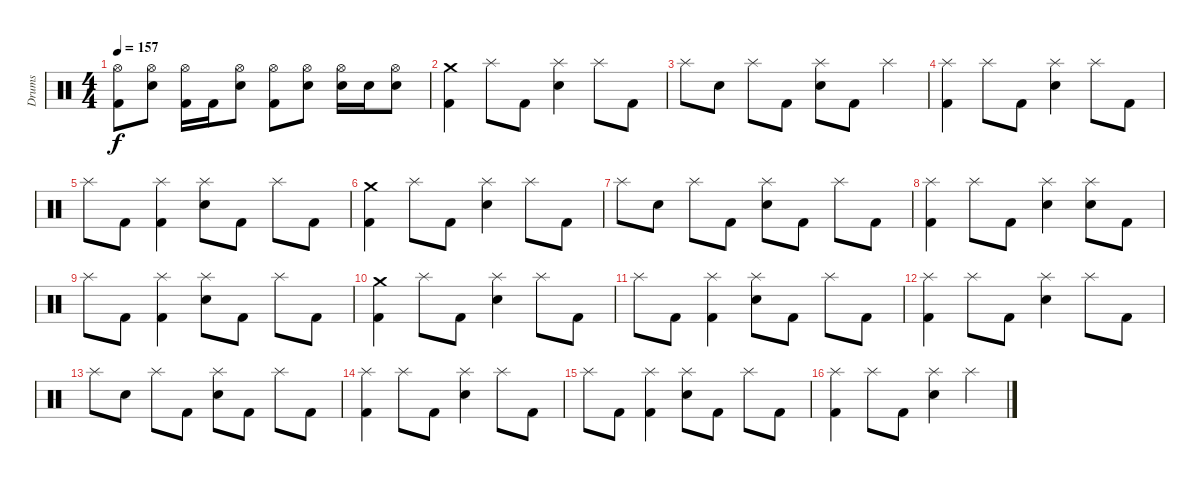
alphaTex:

\track ("Drums" "Drums") {instrument percussion}
\staff {score}
\articulation defaults
\ts (4 4)
\tempo 157
\clef neutral
\ks c
("Kick (hit) 2" "Hi-Hat (open)").8{dy f} ("Electric Snare (hit)" "Hi-Hat (open)").8 ("Kick (hit) 2" "Hi-Hat (open)").16 "Kick (hit) 2".16 ("Electric Snare (hit)" "Hi-Hat (open)").8 ("Kick (hit) 2" "Hi-Hat (open)").8 ("Electric Snare (hit)" "Hi-Hat (open)").8 ("Electric Snare (hit)" "Hi-Hat (open)").16 "Electric Snare (hit)".16 ("Electric Snare (hit)" "Hi-Hat (open)").8 |
("Kick (hit) 2" "Crash medium (hit)").4 "Splash (hit)".8 "Kick (hit) 2".8 ("Electric Snare (hit)" "Splash (hit)").4 "Splash (hit)".8 "Kick (hit) 2".8 |
"Splash (hit)".8 "Electric Snare (hit)".8 "Splash (hit)".8 "Kick (hit) 2".8 ("Electric Snare (hit)" "Splash (hit)").8 "Kick (hit) 2".8 "Splash (hit)".4 |
("Kick (hit) 2" "Splash (hit)").4 "Splash (hit)".8 "Kick (hit) 2".8 ("Electric Snare (hit)" "Splash (hit)").4 "Splash (hit)".8 "Kick (hit) 2".8 |
"Splash (hit)".8 "Kick (hit) 2".8 ("Kick (hit) 2" "Splash (hit)").4 ("Electric Snare (hit)" "Splash (hit)").8 "Kick (hit) 2".8 "Splash (hit)".8 "Kick (hit) 2".8 |
("Kick (hit) 2" "Crash medium (hit)").4 "Splash (hit)".8 "Kick (hit) 2".8 ("Electric Snare (hit)" "Splash (hit)").4 "Splash (hit)".8 "Kick (hit) 2".8 |
"Splash (hit)".8 "Electric Snare (hit)".8 "Splash (hit)".8 "Kick (hit) 2".8 ("Electric Snare (hit)" "Splash (hit)").8 "Kick (hit) 2".8 "Splash (hit)".8 "Kick (hit) 2".8 |
("Kick (hit) 2" "Splash (hit)").4 "Splash (hit)".8 "Kick (hit) 2".8 ("Electric Snare (hit)" "Splash (hit)").4 ("Electric Snare (hit)" "Splash (hit)").8 "Kick (hit) 2".8 |
"Splash (hit)".8 "Kick (hit) 2".8 ("Kick (hit) 2" "Splash (hit)").4 ("Electric Snare (hit)" "Splash (hit)").8 "Kick (hit) 2".8 "Splash (hit)".8 "Kick (hit) 2".8 |
("Kick (hit) 2" "Crash medium (hit)").4 "Splash (hit)".8 "Kick (hit) 2".8 ("Electric Snare (hit)" "Splash (hit)").4 "Splash (hit)".8 "Kick (hit) 2".8 |
"Splash (hit)".8 "Kick (hit) 2".8 ("Kick (hit) 2" "Splash (hit)").4 ("Electric Snare (hit)" "Splash (hit)").8 "Kick (hit) 2".8 "Splash (hit)".8 "Kick (hit) 2".8 |
("Kick (hit) 2" "Splash (hit)").4 "Splash (hit)".8 "Kick (hit) 2".8 ("Electric Snare (hit)" "Splash (hit)").4 "Splash (hit)".8 "Kick (hit) 2".8 |
"Splash (hit)".8 "Electric Snare (hit)".8 "Splash (hit)".8 "Kick (hit) 2".8 ("Electric Snare (hit)" "Splash (hit)").8 "Kick (hit) 2".8 "Splash (hit)".8 "Kick (hit) 2".8 |
("Kick (hit) 2" "Splash (hit)").4 "Splash (hit)".8 "Kick (hit) 2".8 ("Electric Snare (hit)" "Splash (hit)").4 "Splash (hit)".8 "Kick (hit) 2".8 |
"Splash (hit)".8 "Kick (hit) 2".8 ("Kick (hit) 2" "Splash (hit)").4 ("Electric Snare (hit)" "Splash (hit)").8 "Kick (hit) 2".8 "Splash (hit)".8 "Kick (hit) 2".8 |
("Kick (hit) 2" "Splash (hit)").4 "Splash (hit)".8 "Kick (hit) 2".8 ("Electric Snare (hit)" "Splash (hit)").4 "Splash (hit)".4
